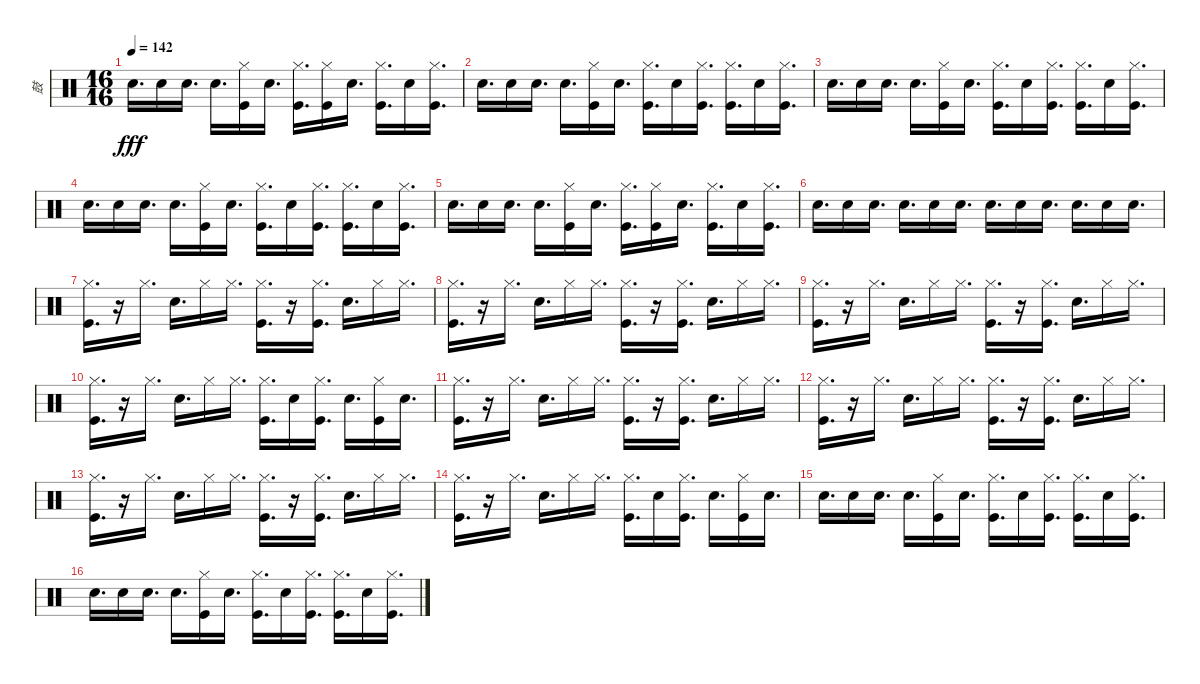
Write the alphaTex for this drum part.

\track ("鼓" "鼓") {instrument percussion}
\staff {score}
\articulation defaults
\ts (16 16)
\tempo 142
\clef neutral
\ks c "Snare (hit) 2".16{d dy fff} "Snare (hit) 2".16 "Snare (hit) 2".16{d} "Snare (hit) 2".16{d}
("Kick (hit)" "Hi-Hat (closed)").16 "Snare (hit) 2".16{d} ("Hi-Hat (closed)" "Kick (hit)").16{d} ("Kick (hit)" "Hi-Hat (closed)").16 "Snare (hit) 2".16{d} ("Hi-Hat (closed)" "Kick (hit)").16{d} "Snare (hit) 2".16 ("Hi-Hat (closed)" "Kick (hit)").16{d} |
"Snare (hit) 2".16{d} "Snare (hit) 2".16 "Snare (hit) 2".16{d} "Snare (hit) 2".16{d} ("Kick (hit)" "Hi-Hat (closed)").16 "Snare (hit) 2".16{d} ("Hi-Hat (closed)" "Kick (hit)").16{d} "Snare (hit) 2".16 ("Hi-Hat (closed)" "Kick (hit)").16{d} ("Hi-Hat (closed)" "Kick (hit)").16{d} "Snare (hit) 2".16 ("Hi-Hat (closed)" "Kick (hit)").16{d} |
"Snare (hit) 2".16{d} "Snare (hit) 2".16 "Snare (hit) 2".16{d} "Snare (hit) 2".16{d} ("Kick (hit)" "Hi-Hat (closed)").16 "Snare (hit) 2".16{d} ("Hi-Hat (closed)" "Kick (hit)").16{d} "Snare (hit) 2".16 ("Hi-Hat (closed)" "Kick (hit)").16{d} ("Hi-Hat (closed)" "Kick (hit)").16{d} "Snare (hit) 2".16 ("Hi-Hat (closed)" "Kick (hit)").16{d} |
"Snare (hit) 2".16{d} "Snare (hit) 2".16 "Snare (hit) 2".16{d} "Snare (hit) 2".16{d} ("Kick (hit)" "Hi-Hat (closed)").16 "Snare (hit) 2".16{d} ("Hi-Hat (closed)" "Kick (hit)").16{d} "Snare (hit) 2".16 ("Hi-Hat (closed)" "Kick (hit)").16{d} ("Hi-Hat (closed)" "Kick (hit)").16{d} "Snare (hit) 2".16 ("Hi-Hat (closed)" "Kick (hit)").16{d} |
"Snare (hit) 2".16{d} "Snare (hit) 2".16 "Snare (hit) 2".16{d} "Snare (hit) 2".16{d} ("Kick (hit)" "Hi-Hat (closed)").16 "Snare (hit) 2".16{d} ("Hi-Hat (closed)" "Kick (hit)").16{d} ("Kick (hit)" "Hi-Hat (closed)").16 "Snare (hit) 2".16{d} ("Hi-Hat (closed)" "Kick (hit)").16{d} "Snare (hit) 2".16 ("Hi-Hat (closed)" "Kick (hit)").16{d} |
"Snare (hit) 2".16{d} "Snare (hit) 2".16 "Snare (hit) 2".16{d} "Snare (hit) 2".16{d} "Snare (hit) 2".16 "Snare (hit) 2".16{d} "Snare (hit) 2".16{d} "Snare (hit) 2".16 "Snare (hit) 2".16{d} "Snare (hit) 2".16{d} "Snare (hit) 2".16 "Snare (hit) 2".16{d} |
("Hi-Hat (closed)" "Kick (hit)").16{d} r.16 "Hi-Hat (closed)".16{d} "Snare (hit) 2".16{d} "Hi-Hat (closed)".16 "Hi-Hat (closed)".16{d} ("Hi-Hat (closed)" "Kick (hit)").16{d} r.16 ("Hi-Hat (closed)" "Kick (hit)").16{d} "Snare (hit) 2".16{d} "Hi-Hat (closed)".16 "Hi-Hat (closed)".16{d} |
("Hi-Hat (closed)" "Kick (hit)").16{d} r.16 "Hi-Hat (closed)".16{d} "Snare (hit) 2".16{d} "Hi-Hat (closed)".16 "Hi-Hat (closed)".16{d} ("Hi-Hat (closed)" "Kick (hit)").16{d} r.16 ("Hi-Hat (closed)" "Kick (hit)").16{d} "Snare (hit) 2".16{d} "Hi-Hat (closed)".16 "Hi-Hat (closed)".16{d} |
("Hi-Hat (closed)" "Kick (hit)").16{d} r.16 "Hi-Hat (closed)".16{d} "Snare (hit) 2".16{d} "Hi-Hat (closed)".16 "Hi-Hat (closed)".16{d} ("Hi-Hat (closed)" "Kick (hit)").16{d} r.16 ("Hi-Hat (closed)" "Kick (hit)").16{d} "Snare (hit) 2".16{d} "Hi-Hat (closed)".16 "Hi-Hat (closed)".16{d} |
("Hi-Hat (closed)" "Kick (hit)").16{d} r.16 "Hi-Hat (closed)".16{d} "Snare (hit) 2".16{d} "Hi-Hat (closed)".16 "Hi-Hat (closed)".16{d} ("Hi-Hat (closed)" "Kick (hit)").16{d} "Snare (hit) 2".16 ("Hi-Hat (closed)" "Kick (hit)").16{d} "Snare (hit) 2".16{d} ("Hi-Hat (closed)" "Kick (hit)").16 "Snare (hit) 2".16{d} |
("Hi-Hat (closed)" "Kick (hit)").16{d} r.16 "Hi-Hat (closed)".16{d} "Snare (hit) 2".16{d} "Hi-Hat (closed)".16 "Hi-Hat (closed)".16{d} ("Hi-Hat (closed)" "Kick (hit)").16{d} r.16 ("Hi-Hat (closed)" "Kick (hit)").16{d} "Snare (hit) 2".16{d} "Hi-Hat (closed)".16 "Hi-Hat (closed)".16{d} |
("Hi-Hat (closed)" "Kick (hit)").16{d} r.16 "Hi-Hat (closed)".16{d} "Snare (hit) 2".16{d} "Hi-Hat (closed)".16 "Hi-Hat (closed)".16{d} ("Hi-Hat (closed)" "Kick (hit)").16{d} r.16 ("Hi-Hat (closed)" "Kick (hit)").16{d} "Snare (hit) 2".16{d} "Hi-Hat (closed)".16 "Hi-Hat (closed)".16{d} |
("Hi-Hat (closed)" "Kick (hit)").16{d} r.16 "Hi-Hat (closed)".16{d} "Snare (hit) 2".16{d} "Hi-Hat (closed)".16 "Hi-Hat (closed)".16{d} ("Hi-Hat (closed)" "Kick (hit)").16{d} r.16 ("Hi-Hat (closed)" "Kick (hit)").16{d} "Snare (hit) 2".16{d} "Hi-Hat (closed)".16 "Hi-Hat (closed)".16{d} |
("Hi-Hat (closed)" "Kick (hit)").16{d} r.16 "Hi-Hat (closed)".16{d} "Snare (hit) 2".16{d} "Hi-Hat (closed)".16 "Hi-Hat (closed)".16{d} ("Hi-Hat (closed)" "Kick (hit)").16{d} "Snare (hit) 2".16 ("Kick (hit)" "Hi-Hat (closed)").16{d} "Snare (hit) 2".16{d} ("Hi-Hat (closed)" "Kick (hit)").16 "Snare (hit) 2".16{d} |
"Snare (hit) 2".16{d} "Snare (hit) 2".16 "Snare (hit) 2".16{d} "Snare (hit) 2".16{d} ("Kick (hit)" "Hi-Hat (closed)").16 "Snare (hit) 2".16{d} ("Hi-Hat (closed)" "Kick (hit)").16{d} "Snare (hit) 2".16 ("Hi-Hat (closed)" "Kick (hit)").16{d} ("Hi-Hat (closed)" "Kick (hit)").16{d} "Snare (hit) 2".16 ("Hi-Hat (closed)" "Kick (hit)").16{d} |
"Snare (hit) 2".16{d} "Snare (hit) 2".16 "Snare (hit) 2".16{d} "Snare (hit) 2".16{d} ("Kick (hit)" "Hi-Hat (closed)").16 "Snare (hit) 2".16{d} ("Hi-Hat (closed)" "Kick (hit)").16{d} "Snare (hit) 2".16 ("Hi-Hat (closed)" "Kick (hit)").16{d} ("Hi-Hat (closed)" "Kick (hit)").16{d} "Snare (hit) 2".16 ("Hi-Hat (closed)" "Kick (hit)").16{d}
